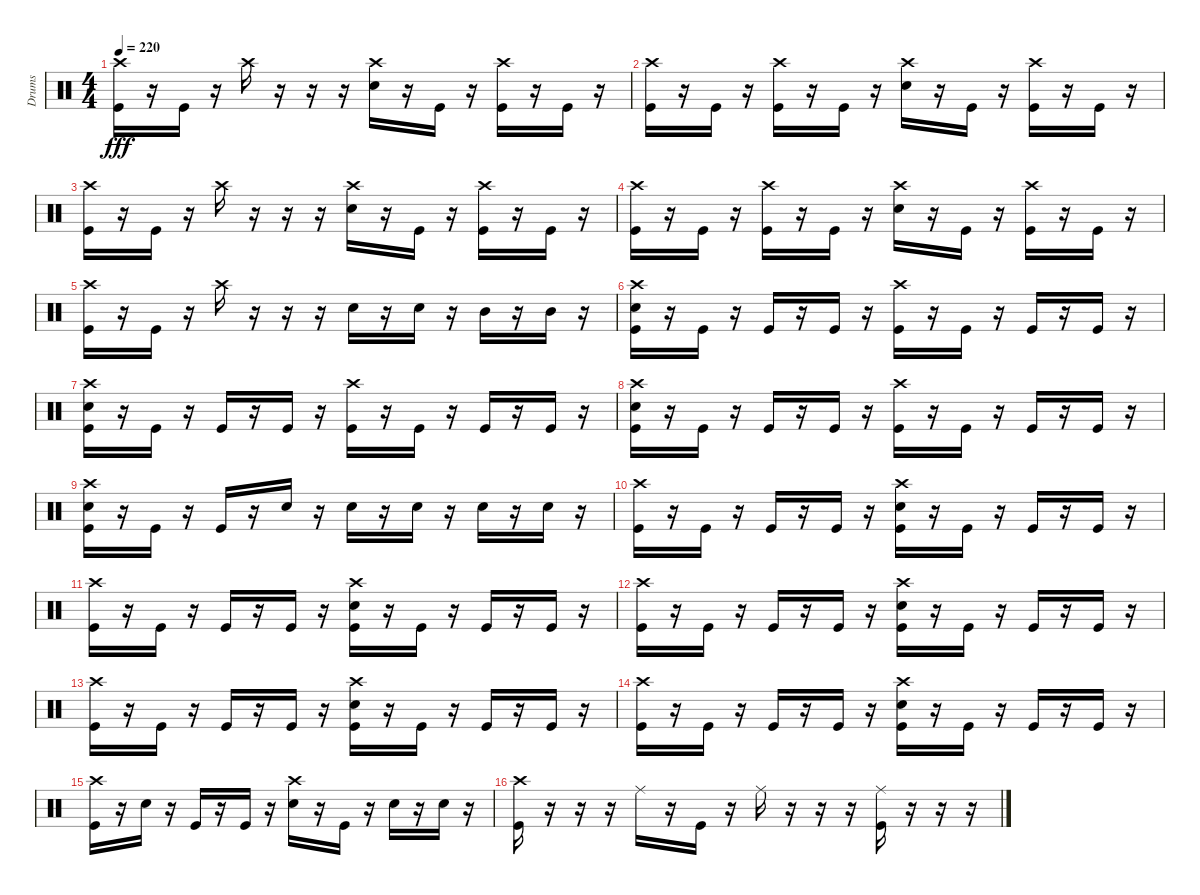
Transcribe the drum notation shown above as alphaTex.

\track ("Drums" "Drums") {instrument percussion}
\staff {score}
\articulation defaults
\ts (4 4)
\tempo 220
\clef neutral
\ks c
("Crash high (hit)" "Kick (hit)").16{dy fff} r.16 "Kick (hit)".16 r.16 "Crash high (hit)".16 r.16 r.16 r.16 ("Crash high (hit)" "Electric Snare (hit)").16 r.16 "Kick (hit)".16 r.16 ("Crash high (hit)" "Kick (hit)").16 r.16 "Kick (hit)".16 r.16 |
("Crash high (hit)" "Kick (hit)").16 r.16 "Kick (hit)".16 r.16 ("Crash high (hit)" "Kick (hit)").16 r.16 "Kick (hit)".16 r.16 ("Crash high (hit)" "Electric Snare (hit)").16 r.16 "Kick (hit)".16 r.16 ("Crash high (hit)" "Kick (hit)").16 r.16 "Kick (hit)".16 r.16 |
("Crash high (hit)" "Kick (hit)").16 r.16 "Kick (hit)".16 r.16 "Crash high (hit)".16 r.16 r.16 r.16 ("Crash high (hit)" "Electric Snare (hit)").16 r.16 "Kick (hit)".16 r.16 ("Crash high (hit)" "Kick (hit)").16 r.16 "Kick (hit)".16 r.16 |
("Crash high (hit)" "Kick (hit)").16 r.16 "Kick (hit)".16 r.16 ("Crash high (hit)" "Kick (hit)").16 r.16 "Kick (hit)".16 r.16 ("Crash high (hit)" "Electric Snare (hit)").16 r.16 "Kick (hit)".16 r.16 ("Crash high (hit)" "Kick (hit)").16 r.16 "Kick (hit)".16 r.16 |
("Crash high (hit)" "Kick (hit)").16 r.16 "Kick (hit)".16 r.16 "Crash high (hit)".16 r.16 r.16 r.16 "Electric Snare (hit)".16 r.16 "Electric Snare (hit)".16 r.16 "Mid Tom (hit)".16 r.16 "Mid Tom (hit)".16 r.16 |
("Crash high (hit)" "Electric Snare (hit)" "Kick (hit)").16 r.16 "Kick (hit)".16 r.16 "Kick (hit)".16 r.16 "Kick (hit)".16 r.16 ("Crash high (hit)" "Kick (hit)").16 r.16 "Kick (hit)".16 r.16 "Kick (hit)".16 r.16 "Kick (hit)".16 r.16 |
("Crash high (hit)" "Electric Snare (hit)" "Kick (hit)").16 r.16 "Kick (hit)".16 r.16 "Kick (hit)".16 r.16 "Kick (hit)".16 r.16 ("Crash high (hit)" "Kick (hit)").16 r.16 "Kick (hit)".16 r.16 "Kick (hit)".16 r.16 "Kick (hit)".16 r.16 |
("Crash high (hit)" "Electric Snare (hit)" "Kick (hit)").16 r.16 "Kick (hit)".16 r.16 "Kick (hit)".16 r.16 "Kick (hit)".16 r.16 ("Crash high (hit)" "Kick (hit)").16 r.16 "Kick (hit)".16 r.16 "Kick (hit)".16 r.16 "Kick (hit)".16 r.16 |
("Crash high (hit)" "Electric Snare (hit)" "Kick (hit)").16 r.16 "Kick (hit)".16 r.16 "Kick (hit)".16 r.16 "Electric Snare (hit)".16 r.16 "Electric Snare (hit)".16 r.16 "Electric Snare (hit)".16 r.16 "Electric Snare (hit)".16 r.16 "Electric Snare (hit)".16 r.16 |
("Crash high (hit)" "Kick (hit)").16 r.16 "Kick (hit)".16 r.16 "Kick (hit)".16 r.16 "Kick (hit)".16 r.16 ("Crash high (hit)" "Electric Snare (hit)" "Kick (hit)").16 r.16 "Kick (hit)".16 r.16 "Kick (hit)".16 r.16 "Kick (hit)".16 r.16 |
("Crash high (hit)" "Kick (hit)").16 r.16 "Kick (hit)".16 r.16 "Kick (hit)".16 r.16 "Kick (hit)".16 r.16 ("Crash high (hit)" "Electric Snare (hit)" "Kick (hit)").16 r.16 "Kick (hit)".16 r.16 "Kick (hit)".16 r.16 "Kick (hit)".16 r.16 |
("Crash high (hit)" "Kick (hit)").16 r.16 "Kick (hit)".16 r.16 "Kick (hit)".16 r.16 "Kick (hit)".16 r.16 ("Crash high (hit)" "Electric Snare (hit)" "Kick (hit)").16 r.16 "Kick (hit)".16 r.16 "Kick (hit)".16 r.16 "Kick (hit)".16 r.16 |
("Crash high (hit)" "Kick (hit)").16 r.16 "Kick (hit)".16 r.16 "Kick (hit)".16 r.16 "Kick (hit)".16 r.16 ("Crash high (hit)" "Electric Snare (hit)" "Kick (hit)").16 r.16 "Kick (hit)".16 r.16 "Kick (hit)".16 r.16 "Kick (hit)".16 r.16 |
("Crash high (hit)" "Kick (hit)").16 r.16 "Kick (hit)".16 r.16 "Kick (hit)".16 r.16 "Kick (hit)".16 r.16 ("Crash high (hit)" "Electric Snare (hit)" "Kick (hit)").16 r.16 "Kick (hit)".16 r.16 "Kick (hit)".16 r.16 "Kick (hit)".16 r.16 |
("Crash high (hit)" "Kick (hit)").16 r.16 "Electric Snare (hit)".16 r.16 "Kick (hit)".16 r.16 "Kick (hit)".16 r.16 ("Crash high (hit)" "Electric Snare (hit)").16 r.16 "Kick (hit)".16 r.16 "Electric Snare (hit)".16 r.16 "Electric Snare (hit)".16 r.16 |
("Crash high (hit)" "Kick (hit)").16 r.16 r.16 r.16 "Ride (middle)".16 r.16 "Kick (hit)".16 r.16 "Ride (middle)".16 r.16 r.16 r.16 ("Ride (middle)" "Kick (hit)").16 r.16 r.16 r.16
